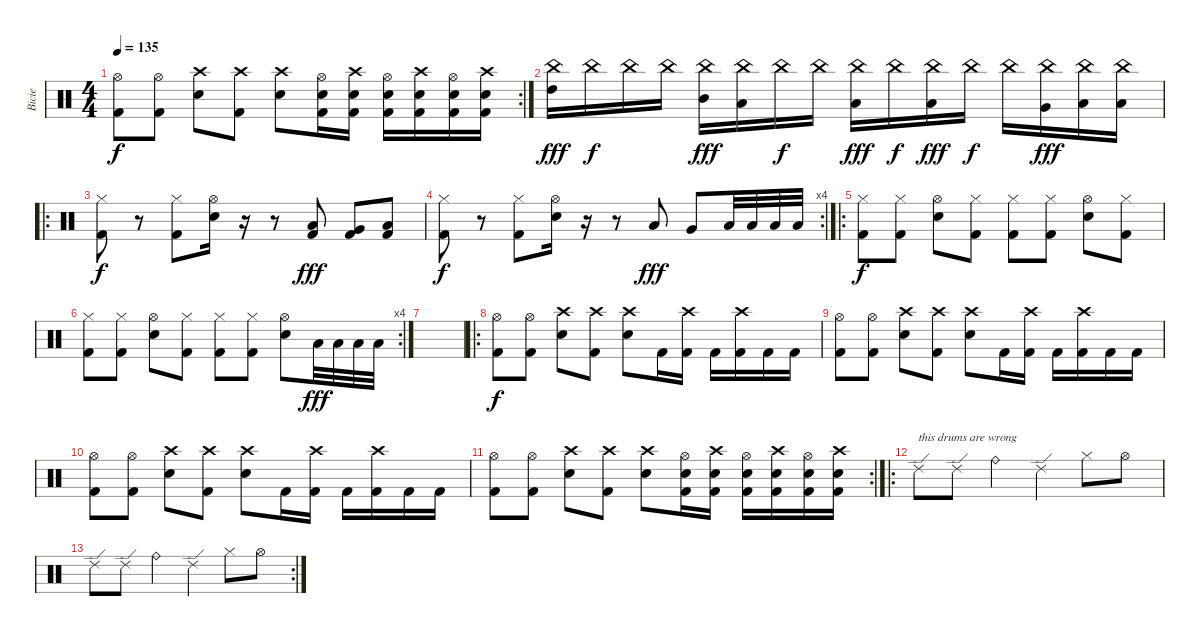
\track ("Bicie" "Bicie") {instrument percussion}
\staff {score}
\articulation defaults
\rc 2
\ts (4 4)
\tempo 135
\clef neutral
\ks c
("Hi-Hat (open)" "Kick (hit) 2").8{dy f} ("Hi-Hat (open)" "Kick (hit) 2").8 ("Crash high (hit)" "Electric Snare (hit)").8 ("Crash high (hit)" "Kick (hit) 2").8 ("Crash high (hit)" "Electric Snare (hit)").8 ("Electric Snare (hit)" "Hi-Hat (open)" "Kick (hit) 2").16 ("Electric Snare (hit)" "Crash high (hit)" "Kick (hit) 2").16 ("Electric Snare (hit)" "Hi-Hat (open)" "Kick (hit) 2").16 ("Electric Snare (hit)" "Crash high (hit)" "Kick (hit) 2").16 ("Electric Snare (hit)" "Hi-Hat (open)" "Kick (hit) 2").16 ("Electric Snare (hit)" "Crash high (hit)" "Kick (hit) 2").16 |
("High Tom (hit)" "China (hit)").16{dy fff} "China (hit)".16{dy f} "China (hit)".16 "China (hit)".16 ("Mid Tom (hit)" "China (hit)").16{dy fff} ("Low Tom (hit)" "China (hit)").16 "China (hit)".16{dy f} "China (hit)".16 ("Low Tom (hit)" "China (hit)").16{dy fff} "China (hit)".16{dy f} ("Low Tom (hit)" "China (hit)").16{dy fff} "China (hit)".16{dy f} "China (hit)".16 ("Very Low Tom (hit)" "China (hit)").16{dy fff} ("Low Floor Tom (hit)" "China (hit)").16 ("Low Floor Tom (hit)" "China (hit)").16 |
\ro
("Hi-Hat (closed)" "Kick (hit) 2").8{dy f} r.8 ("Hi-Hat (closed)" "Kick (hit) 2").8 ("Hi-Hat (open)" "Electric Snare (hit)").16 r.16 r.8 ("Low Tom (hit)" "Kick (hit) 2").8{dy fff} ("Very Low Tom (hit)" "Kick (hit) 2").8 ("Low Floor Tom (hit)" "Kick (hit) 2").8 |
\rc 4
("Hi-Hat (closed)" "Kick (hit) 2").8{dy f} r.8 ("Hi-Hat (closed)" "Kick (hit) 2").8 ("Hi-Hat (open)" "Electric Snare (hit)").16 r.16 r.8 "Low Tom (hit)".8{dy fff} "Very Low Tom (hit)".8 "Low Floor Tom (hit)".32 "Low Floor Tom (hit)".32 "Low Floor Tom (hit)".32 "Low Floor Tom (hit)".32 |
\ro
("Hi-Hat (closed)" "Kick (hit) 2").8{dy f} ("Hi-Hat (closed)" "Kick (hit) 2").8 ("Hi-Hat (open)" "Electric Snare (hit)").8 ("Hi-Hat (closed)" "Kick (hit) 2").8 ("Hi-Hat (closed)" "Kick (hit) 2").8 ("Hi-Hat (closed)" "Kick (hit) 2").8 ("Hi-Hat (open)" "Electric Snare (hit)").8 ("Hi-Hat (closed)" "Kick (hit) 2").8 |
\rc 4
("Hi-Hat (closed)" "Kick (hit) 2").8 ("Hi-Hat (closed)" "Kick (hit) 2").8 ("Hi-Hat (open)" "Electric Snare (hit)").8 ("Hi-Hat (closed)" "Kick (hit) 2").8 ("Hi-Hat (closed)" "Kick (hit) 2").8 ("Hi-Hat (closed)" "Kick (hit) 2").8 ("Hi-Hat (open)" "Electric Snare (hit)").8 "Low Floor Tom (hit)".32{dy fff} "Low Floor Tom (hit)".32 "Low Floor Tom (hit)".32 "Low Floor Tom (hit)".32 |
|
\ro
("Hi-Hat (open)" "Kick (hit) 2").8{dy f} ("Hi-Hat (open)" "Kick (hit) 2").8 ("Crash high (hit)" "Electric Snare (hit)").8 ("Crash high (hit)" "Kick (hit) 2").8 ("Crash high (hit)" "Electric Snare (hit)").8 "Kick (hit) 2".16 ("Crash high (hit)" "Kick (hit) 2").16 "Kick (hit) 2".16 ("Crash high (hit)" "Kick (hit) 2").16 "Kick (hit) 2".16 "Kick (hit) 2".16 |
("Hi-Hat (open)" "Kick (hit) 2").8 ("Hi-Hat (open)" "Kick (hit) 2").8 ("Crash high (hit)" "Electric Snare (hit)").8 ("Crash high (hit)" "Kick (hit) 2").8 ("Crash high (hit)" "Electric Snare (hit)").8 "Kick (hit) 2".16 ("Crash high (hit)" "Kick (hit) 2").16 "Kick (hit) 2".16 ("Crash high (hit)" "Kick (hit) 2").16 "Kick (hit) 2".16 "Kick (hit) 2".16 |
("Hi-Hat (open)" "Kick (hit) 2").8 ("Hi-Hat (open)" "Kick (hit) 2").8 ("Crash high (hit)" "Electric Snare (hit)").8 ("Crash high (hit)" "Kick (hit) 2").8 ("Crash high (hit)" "Electric Snare (hit)").8 "Kick (hit) 2".16 ("Crash high (hit)" "Kick (hit) 2").16 "Kick (hit) 2".16 ("Crash high (hit)" "Kick (hit) 2").16 "Kick (hit) 2".16 "Kick (hit) 2".16 |
\rc 2
("Hi-Hat (open)" "Kick (hit) 2").8 ("Hi-Hat (open)" "Kick (hit) 2").8 ("Crash high (hit)" "Electric Snare (hit)").8 ("Crash high (hit)" "Kick (hit) 2").8 ("Crash high (hit)" "Electric Snare (hit)").8 ("Electric Snare (hit)" "Hi-Hat (open)" "Kick (hit) 2").16 ("Electric Snare (hit)" "Crash high (hit)" "Kick (hit) 2").16 ("Electric Snare (hit)" "Hi-Hat (open)" "Kick (hit) 2").16 ("Electric Snare (hit)" "Crash high (hit)" "Kick (hit) 2").16 ("Electric Snare (hit)" "Hi-Hat (open)" "Kick (hit) 2").16 ("Electric Snare (hit)" "Crash high (hit)" "Kick (hit) 2").16 |
\ro "Ride (edge) 2".8{txt "this drums are wrong"} "Ride (edge) 2".8 "Ride (bell)".4 "Ride (edge) 2".4 "Hi-Hat (closed)".8 "Hi-Hat (open)".8
|
\rc 2 "Ride (edge) 2".8 "Ride (edge) 2".8 "Ride (bell)".4 "Ride (edge) 2".4 "Hi-Hat (closed)".8 "Hi-Hat (open)".8
